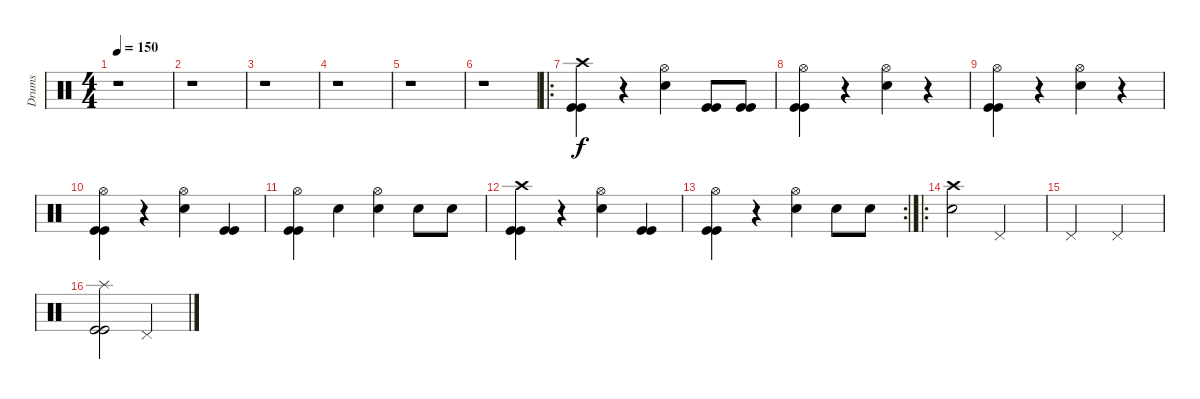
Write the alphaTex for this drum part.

\track ("Drums" "Drums") {instrument percussion}
\staff {score}
\articulation defaults
\ts (4 4)
\tempo 150
\clef neutral
\ks c
r.1{dy f} |
r.1 |
r.1 |
r.1 |
r.1 |
r.1 |
\ro
("Crash high (hit)" "Kick (hit)" "Kick (hit)").4 r.4 ("Hi-Hat (open)" "Snare (hit) 2").4 ("Kick (hit)" "Kick (hit)").8 ("Kick (hit)" "Kick (hit)").8 |
("Hi-Hat (open)" "Kick (hit)" "Kick (hit)").4 r.4 ("Hi-Hat (open)" "Snare (hit) 2").4 r.4 |
("Hi-Hat (open)" "Kick (hit)" "Kick (hit)").4 r.4 ("Hi-Hat (open)" "Snare (hit) 2").4 r.4 |
("Hi-Hat (open)" "Kick (hit)" "Kick (hit)").4 r.4 ("Hi-Hat (open)" "Snare (hit) 2").4 ("Kick (hit)" "Kick (hit)").4 |
("Hi-Hat (open)" "Kick (hit)" "Kick (hit)").4 "Snare (hit) 2".4 ("Hi-Hat (open)" "Snare (hit) 2").4 "Snare (hit) 2".8 "Snare (hit) 2".8 |
("Crash high (hit)" "Kick (hit)" "Kick (hit)").4 r.4 ("Hi-Hat (open)" "Snare (hit) 2").4 ("Kick (hit)" "Kick (hit)").4 |
\rc 2
("Hi-Hat (open)" "Kick (hit)" "Kick (hit)").4 r.4 ("Hi-Hat (open)" "Snare (hit) 2").4 "Snare (hit) 2".8 "Snare (hit) 2".8 |
\ro
("Crash high (hit)" "Snare (hit) 2").2 "Pedal Hi-Hat (hit)".2 |
"Pedal Hi-Hat (hit)".2 "Pedal Hi-Hat (hit)".2 |
("Splash (hit)" "Kick (hit)" "Kick (hit)").2 "Pedal Hi-Hat (hit)".2
